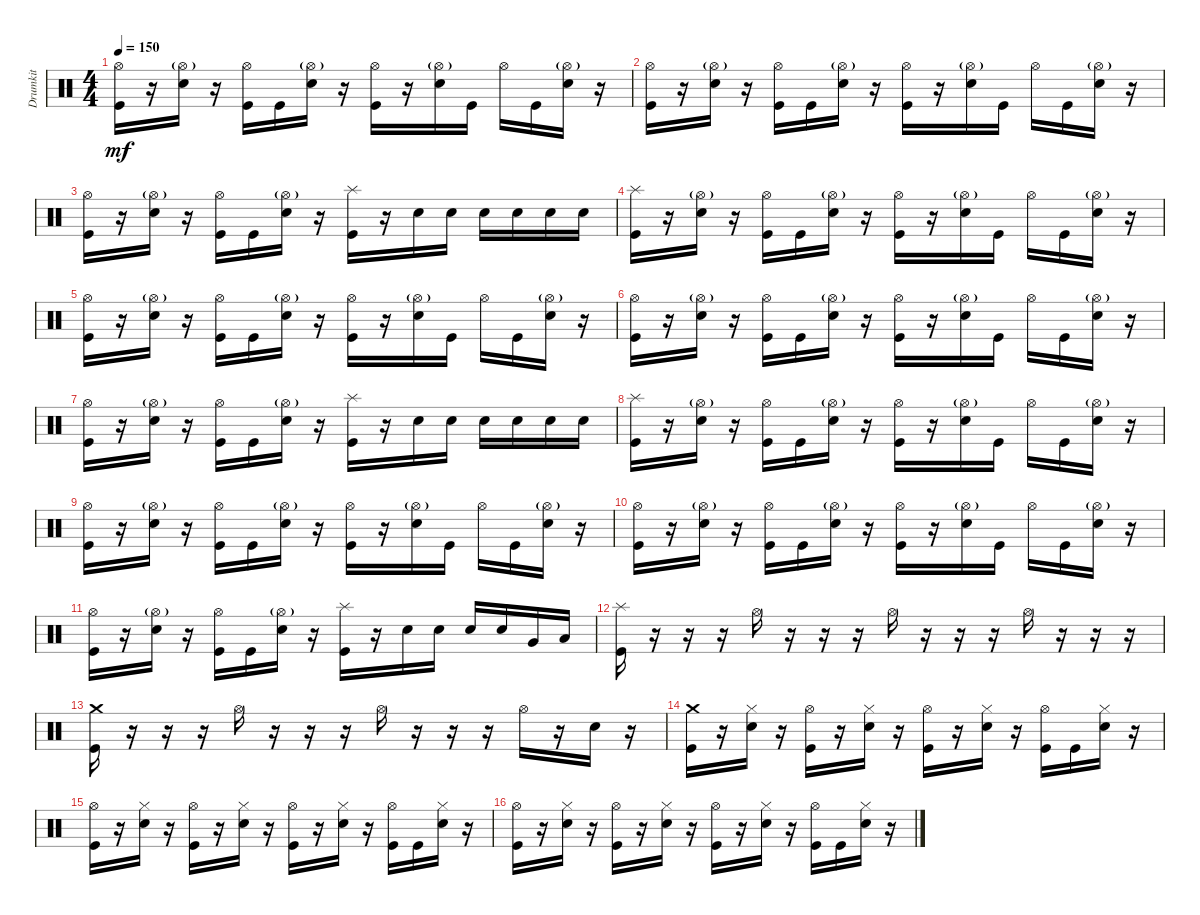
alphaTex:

\track ("Drumkit" "Drumkit") {instrument percussion}
\staff {score}
\articulation defaults
\ts (4 4)
\tempo 150
\clef neutral
\ks c
("Kick (hit)" "Hi-Hat (open)").16{dy mf} r.16 ("Snare (hit) 2" "Hi-Hat (open)"{g}).16 r.16 ("Kick (hit)" "Hi-Hat (open)").16 "Kick (hit)".16 ("Snare (hit) 2" "Hi-Hat (open)"{g}).16 r.16 ("Kick (hit)" "Hi-Hat (open)").16 r.16 ("Snare (hit) 2" "Hi-Hat (open)"{g}).16 "Kick (hit)".16 "Hi-Hat (open)".16 "Kick (hit)".16 ("Snare (hit) 2" "Hi-Hat (open)"{g}).16 r.16 |
("Kick (hit)" "Hi-Hat (open)").16 r.16 ("Snare (hit) 2" "Hi-Hat (open)"{g}).16 r.16 ("Kick (hit)" "Hi-Hat (open)").16 "Kick (hit)".16 ("Snare (hit) 2" "Hi-Hat (open)"{g}).16 r.16 ("Kick (hit)" "Hi-Hat (open)").16 r.16 ("Snare (hit) 2" "Hi-Hat (open)"{g}).16 "Kick (hit)".16 "Hi-Hat (open)".16 "Kick (hit)".16 ("Snare (hit) 2" "Hi-Hat (open)"{g}).16 r.16 |
("Kick (hit)" "Hi-Hat (open)").16 r.16 ("Snare (hit) 2" "Hi-Hat (open)"{g}).16 r.16 ("Kick (hit)" "Hi-Hat (open)").16 "Kick (hit)".16 ("Snare (hit) 2" "Hi-Hat (open)"{g}).16 r.16 ("Kick (hit)" "Splash (hit)").16 r.16 "Snare (hit) 2".16 "Snare (hit) 2".16 "Snare (hit) 2".16 "Snare (hit) 2".16 "Snare (hit) 2".16 "Snare (hit) 2".16 |
("Kick (hit)" "Splash (hit)").16 r.16 ("Snare (hit) 2" "Hi-Hat (open)"{g}).16 r.16 ("Kick (hit)" "Hi-Hat (open)").16 "Kick (hit)".16 ("Snare (hit) 2" "Hi-Hat (open)"{g}).16 r.16 ("Kick (hit)" "Hi-Hat (open)").16 r.16 ("Snare (hit) 2" "Hi-Hat (open)"{g}).16 "Kick (hit)".16 "Hi-Hat (open)".16 "Kick (hit)".16 ("Snare (hit) 2" "Hi-Hat (open)"{g}).16 r.16 |
("Kick (hit)" "Hi-Hat (open)").16 r.16 ("Snare (hit) 2" "Hi-Hat (open)"{g}).16 r.16 ("Kick (hit)" "Hi-Hat (open)").16 "Kick (hit)".16 ("Snare (hit) 2" "Hi-Hat (open)"{g}).16 r.16 ("Kick (hit)" "Hi-Hat (open)").16 r.16 ("Snare (hit) 2" "Hi-Hat (open)"{g}).16 "Kick (hit)".16 "Hi-Hat (open)".16 "Kick (hit)".16 ("Snare (hit) 2" "Hi-Hat (open)"{g}).16 r.16 |
("Kick (hit)" "Hi-Hat (open)").16 r.16 ("Snare (hit) 2" "Hi-Hat (open)"{g}).16 r.16 ("Kick (hit)" "Hi-Hat (open)").16 "Kick (hit)".16 ("Snare (hit) 2" "Hi-Hat (open)"{g}).16 r.16 ("Kick (hit)" "Hi-Hat (open)").16 r.16 ("Snare (hit) 2" "Hi-Hat (open)"{g}).16 "Kick (hit)".16 "Hi-Hat (open)".16 "Kick (hit)".16 ("Snare (hit) 2" "Hi-Hat (open)"{g}).16 r.16 |
("Kick (hit)" "Hi-Hat (open)").16 r.16 ("Snare (hit) 2" "Hi-Hat (open)"{g}).16 r.16 ("Kick (hit)" "Hi-Hat (open)").16 "Kick (hit)".16 ("Snare (hit) 2" "Hi-Hat (open)"{g}).16 r.16 ("Kick (hit)" "Splash (hit)").16 r.16 "Snare (hit) 2".16 "Snare (hit) 2".16 "Snare (hit) 2".16 "Snare (hit) 2".16 "Snare (hit) 2".16 "Snare (hit) 2".16 |
("Kick (hit)" "Splash (hit)").16 r.16 ("Snare (hit) 2" "Hi-Hat (open)"{g}).16 r.16 ("Kick (hit)" "Hi-Hat (open)").16 "Kick (hit)".16 ("Snare (hit) 2" "Hi-Hat (open)"{g}).16 r.16 ("Kick (hit)" "Hi-Hat (open)").16 r.16 ("Snare (hit) 2" "Hi-Hat (open)"{g}).16 "Kick (hit)".16 "Hi-Hat (open)".16 "Kick (hit)".16 ("Snare (hit) 2" "Hi-Hat (open)"{g}).16 r.16 |
("Kick (hit)" "Hi-Hat (open)").16 r.16 ("Snare (hit) 2" "Hi-Hat (open)"{g}).16 r.16 ("Kick (hit)" "Hi-Hat (open)").16 "Kick (hit)".16 ("Snare (hit) 2" "Hi-Hat (open)"{g}).16 r.16 ("Kick (hit)" "Hi-Hat (open)").16 r.16 ("Snare (hit) 2" "Hi-Hat (open)"{g}).16 "Kick (hit)".16 "Hi-Hat (open)".16 "Kick (hit)".16 ("Snare (hit) 2" "Hi-Hat (open)"{g}).16 r.16 |
("Kick (hit)" "Hi-Hat (open)").16 r.16 ("Snare (hit) 2" "Hi-Hat (open)"{g}).16 r.16 ("Kick (hit)" "Hi-Hat (open)").16 "Kick (hit)".16 ("Snare (hit) 2" "Hi-Hat (open)"{g}).16 r.16 ("Kick (hit)" "Hi-Hat (open)").16 r.16 ("Snare (hit) 2" "Hi-Hat (open)"{g}).16 "Kick (hit)".16 "Hi-Hat (open)".16 "Kick (hit)".16 ("Snare (hit) 2" "Hi-Hat (open)"{g}).16 r.16 |
("Kick (hit)" "Hi-Hat (open)").16 r.16 ("Snare (hit) 2" "Hi-Hat (open)"{g}).16 r.16 ("Kick (hit)" "Hi-Hat (open)").16 "Kick (hit)".16 ("Snare (hit) 2" "Hi-Hat (open)"{g}).16 r.16 ("Kick (hit)" "Splash (hit)").16 r.16 "Snare (hit) 2".16 "Snare (hit) 2".16 "Snare (hit) 2".16 "Snare (hit) 2".16 "Very Low Tom (hit)".16 "Low Floor Tom (hit)".16 |
("Kick (hit)" "Splash (hit)").16 r.16 r.16 r.16 "Hi-Hat (open)".16 r.16 r.16 r.16 "Hi-Hat (open)".16 r.16 r.16 r.16 "Hi-Hat (open)".16 r.16 r.16 r.16 |
("Kick (hit)" "Crash medium (hit)").16 r.16 r.16 r.16 "Hi-Hat (open)".16 r.16 r.16 r.16 "Hi-Hat (open)".16 r.16 r.16 r.16 "Hi-Hat (open)".16 r.16 "Snare (hit) 2".16 r.16 |
("Kick (hit)" "Crash medium (hit)").16 r.16 ("Snare (hit) 2" "Hi-Hat (closed)").16 r.16 ("Kick (hit)" "Hi-Hat (open)").16 r.16 ("Snare (hit) 2" "Hi-Hat (closed)").16 r.16 ("Kick (hit)" "Hi-Hat (open)").16 r.16 ("Snare (hit) 2" "Hi-Hat (closed)").16 r.16 ("Kick (hit)" "Hi-Hat (open)").16 "Kick (hit)".16 ("Snare (hit) 2" "Hi-Hat (closed)").16 r.16 |
("Hi-Hat (open)" "Kick (hit)").16 r.16 ("Snare (hit) 2" "Hi-Hat (closed)").16 r.16 ("Hi-Hat (open)" "Kick (hit)").16 r.16 ("Snare (hit) 2" "Hi-Hat (closed)").16 r.16 ("Hi-Hat (open)" "Kick (hit)").16 r.16 ("Snare (hit) 2" "Hi-Hat (closed)").16 r.16 ("Hi-Hat (open)" "Kick (hit)").16 "Kick (hit)".16 ("Snare (hit) 2" "Hi-Hat (closed)").16 r.16 |
("Hi-Hat (open)" "Kick (hit)").16 r.16 ("Snare (hit) 2" "Hi-Hat (closed)").16 r.16 ("Hi-Hat (open)" "Kick (hit)").16 r.16 ("Snare (hit) 2" "Hi-Hat (closed)").16 r.16 ("Hi-Hat (open)" "Kick (hit)").16 r.16 ("Snare (hit) 2" "Hi-Hat (closed)").16 r.16 ("Hi-Hat (open)" "Kick (hit)").16 "Kick (hit)".16 ("Snare (hit) 2" "Hi-Hat (closed)").16 r.16
